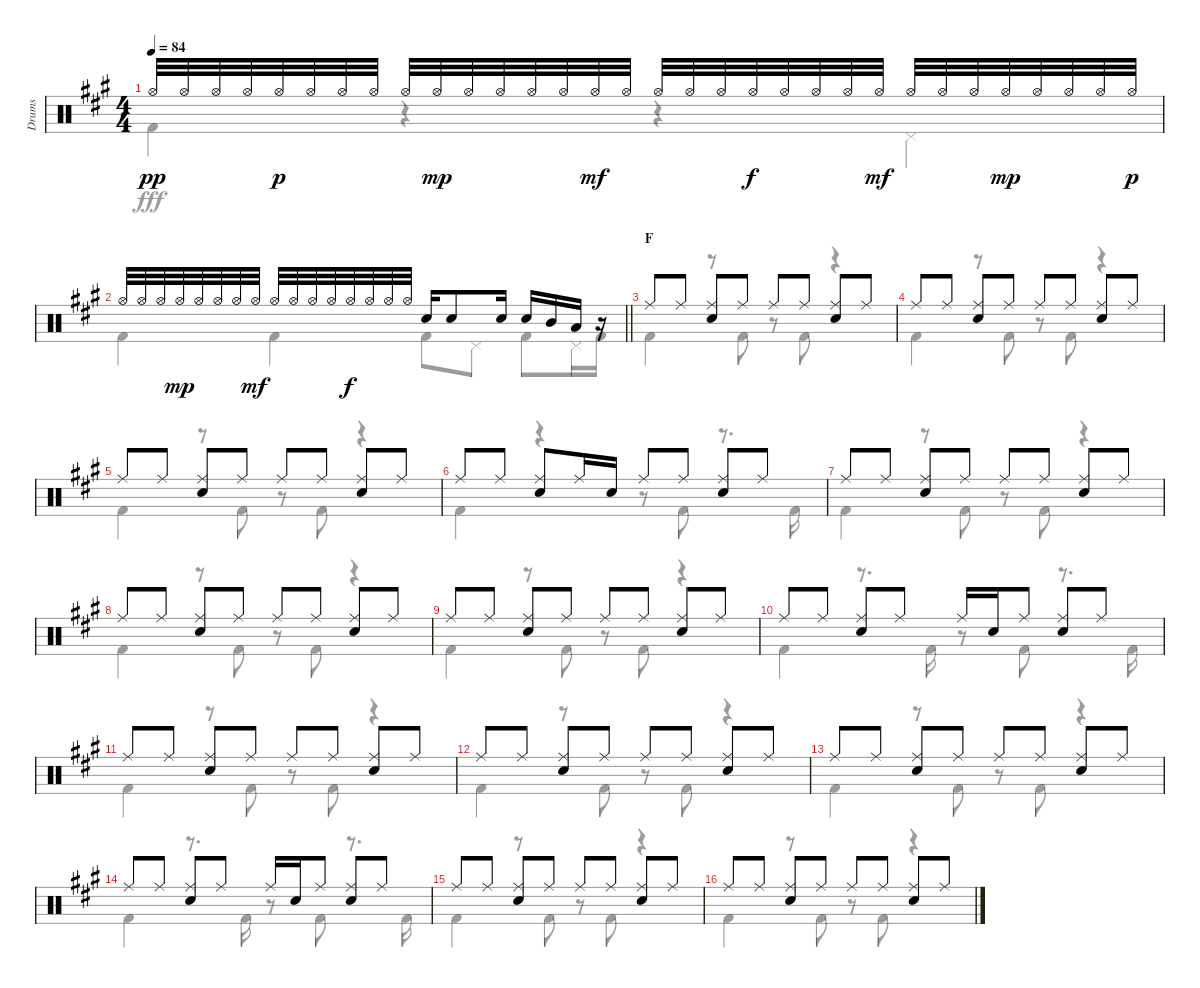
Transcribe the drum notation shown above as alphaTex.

\track ("Drums" "Drums") {instrument percussion}
\staff {score}
\articulation defaults
\voice
\ts (4 4)
\tempo 84
\clef neutral
\ks a "Hi-Hat (open)".32{dy pp} "Hi-Hat (open)".32 "Hi-Hat (open)".32 "Hi-Hat (open)".32 "Hi-Hat (open)".32{dy p} "Hi-Hat (open)".32 "Hi-Hat (open)".32 "Hi-Hat (open)".32 "Hi-Hat (open)".32 "Hi-Hat (open)".32{dy mp} "Hi-Hat (open)".32 "Hi-Hat (open)".32 "Hi-Hat (open)".32 "Hi-Hat (open)".32 "Hi-Hat (open)".32{dy mf} "Hi-Hat (open)".32 "Hi-Hat (open)".32 "Hi-Hat (open)".32 "Hi-Hat (open)".32 "Hi-Hat (open)".32{dy f} "Hi-Hat (open)".32 "Hi-Hat (open)".32 "Hi-Hat (open)".32 "Hi-Hat (open)".32{dy mf} "Hi-Hat (open)".32 "Hi-Hat (open)".32 "Hi-Hat (open)".32 "Hi-Hat (open)".32{dy mp} "Hi-Hat (open)".32 "Hi-Hat (open)".32 "Hi-Hat (open)".32 "Hi-Hat (open)".32{dy p}
|
\barLineRight lightlight "Hi-Hat (open)".32 "Hi-Hat (open)".32 "Hi-Hat (open)".32 "Hi-Hat (open)".32{dy mp} "Hi-Hat (open)".32 "Hi-Hat (open)".32 "Hi-Hat (open)".32 "Hi-Hat (open)".32{dy mf} "Hi-Hat (open)".32 "Hi-Hat (open)".32 "Hi-Hat (open)".32 "Hi-Hat (open)".32 "Hi-Hat (open)".32{dy f} "Hi-Hat (open)".32 "Hi-Hat (open)".32 "Hi-Hat (open)".32 "Snare (hit) 2".16 "Snare (hit) 2".8 "Snare (hit) 2".16 "Snare (hit) 2".16 "Mid Tom (hit)".16 "Low Tom (hit)".16
r.16 |
\section ("" "F")
"Ride (middle)".8 "Ride (middle)".8 ("Ride (middle)" "Snare (hit) 2").8 "Ride (middle)".8 "Ride (middle)".8 "Ride (middle)".8 ("Ride (middle)" "Snare (hit) 2").8 "Ride (middle)".8 |
"Ride (middle)".8 "Ride (middle)".8 ("Ride (middle)" "Snare (hit) 2").8 "Ride (middle)".8 "Ride (middle)".8 "Ride (middle)".8 ("Ride (middle)" "Snare (hit) 2").8 "Ride (middle)".8 |
"Ride (middle)".8 "Ride (middle)".8 ("Ride (middle)" "Snare (hit) 2").8 "Ride (middle)".8 "Ride (middle)".8 "Ride (middle)".8 ("Ride (middle)" "Snare (hit) 2").8 "Ride (middle)".8 |
"Ride (middle)".8 "Ride (middle)".8 ("Ride (middle)" "Snare (hit) 2").8 "Ride (middle)".16 "Snare (hit) 2".16 "Ride (middle)".8 "Ride (middle)".8 ("Ride (middle)" "Snare (hit) 2").8 "Ride (middle)".8 |
"Ride (middle)".8 "Ride (middle)".8 ("Ride (middle)" "Snare (hit) 2").8 "Ride (middle)".8 "Ride (middle)".8 "Ride (middle)".8 ("Ride (middle)" "Snare (hit) 2").8 "Ride (middle)".8 |
"Ride (middle)".8 "Ride (middle)".8 ("Ride (middle)" "Snare (hit) 2").8 "Ride (middle)".8 "Ride (middle)".8 "Ride (middle)".8 ("Ride (middle)" "Snare (hit) 2").8 "Ride (middle)".8 |
"Ride (middle)".8 "Ride (middle)".8 ("Ride (middle)" "Snare (hit) 2").8 "Ride (middle)".8 "Ride (middle)".8 "Ride (middle)".8 ("Ride (middle)" "Snare (hit) 2").8 "Ride (middle)".8 |
"Ride (middle)".8 "Ride (middle)".8 ("Ride (middle)" "Snare (hit) 2").8 "Ride (middle)".8 "Ride (middle)".16 "Snare (hit) 2".16 "Ride (middle)".8 ("Ride (middle)" "Snare (hit) 2").8 "Ride (middle)".8 |
"Ride (middle)".8 "Ride (middle)".8 ("Ride (middle)" "Snare (hit) 2").8 "Ride (middle)".8 "Ride (middle)".8 "Ride (middle)".8 ("Ride (middle)" "Snare (hit) 2").8 "Ride (middle)".8 |
"Ride (middle)".8 "Ride (middle)".8 ("Ride (middle)" "Snare (hit) 2").8 "Ride (middle)".8 "Ride (middle)".8 "Ride (middle)".8 ("Ride (middle)" "Snare (hit) 2").8 "Ride (middle)".8 |
"Ride (middle)".8 "Ride (middle)".8 ("Ride (middle)" "Snare (hit) 2").8 "Ride (middle)".8 "Ride (middle)".8 "Ride (middle)".8 ("Ride (middle)" "Snare (hit) 2").8 "Ride (middle)".8 |
"Ride (middle)".8 "Ride (middle)".8 ("Ride (middle)" "Snare (hit) 2").8 "Ride (middle)".8 "Ride (middle)".16 "Snare (hit) 2".16 "Ride (middle)".8 ("Ride (middle)" "Snare (hit) 2").8 "Ride (middle)".8 |
"Ride (middle)".8 "Ride (middle)".8 ("Ride (middle)" "Snare (hit) 2").8 "Ride (middle)".8 "Ride (middle)".8 "Ride (middle)".8 ("Ride (middle)" "Snare (hit) 2").8 "Ride (middle)".8 |
"Ride (middle)".8 "Ride (middle)".8 ("Ride (middle)" "Snare (hit) 2").8 "Ride (middle)".8 "Ride (middle)".8 "Ride (middle)".8 ("Ride (middle)" "Snare (hit) 2").8 "Ride (middle)".8
\voice
\clef neutral
\ottava regular
\simile none
\ks a "Kick (hit) 2".4{dy fff}
r.4 r.4 "Pedal Hi-Hat (hit)".4 |
\barLineRight lightlight "Kick (hit) 2".4 "Kick (hit) 2".4 "Kick (hit) 2".8 "Pedal Hi-Hat (hit)".8 "Kick (hit) 2".8 "Pedal Hi-Hat (hit)".16 "Kick (hit) 2".16
|
"Kick (hit) 2".4 r.8 "Kick (hit) 2".8 r.8 "Kick (hit) 2".8 r.4 |
"Kick (hit) 2".4 r.8 "Kick (hit) 2".8 r.8 "Kick (hit) 2".8 r.4 |
"Kick (hit) 2".4 r.8 "Kick (hit) 2".8 r.8 "Kick (hit) 2".8 r.4 |
"Kick (hit) 2".4 r.4 r.8 "Kick (hit) 2".8 r.8{d} "Kick (hit) 2".16 |
"Kick (hit) 2".4 r.8 "Kick (hit) 2".8 r.8 "Kick (hit) 2".8 r.4 |
"Kick (hit) 2".4 r.8 "Kick (hit) 2".8 r.8 "Kick (hit) 2".8 r.4 |
"Kick (hit) 2".4 r.8 "Kick (hit) 2".8 r.8 "Kick (hit) 2".8 r.4 |
"Kick (hit) 2".4 r.8{d} "Kick (hit) 2".16 r.8 "Kick (hit) 2".8 r.8{d} "Kick (hit) 2".16 |
"Kick (hit) 2".4 r.8 "Kick (hit) 2".8 r.8 "Kick (hit) 2".8 r.4 |
"Kick (hit) 2".4 r.8 "Kick (hit) 2".8 r.8 "Kick (hit) 2".8 r.4 |
"Kick (hit) 2".4 r.8 "Kick (hit) 2".8 r.8 "Kick (hit) 2".8 r.4 |
"Kick (hit) 2".4 r.8{d} "Kick (hit) 2".16 r.8 "Kick (hit) 2".8 r.8{d} "Kick (hit) 2".16 |
"Kick (hit) 2".4 r.8 "Kick (hit) 2".8 r.8 "Kick (hit) 2".8 r.4 |
"Kick (hit) 2".4 r.8 "Kick (hit) 2".8 r.8 "Kick (hit) 2".8 r.4
